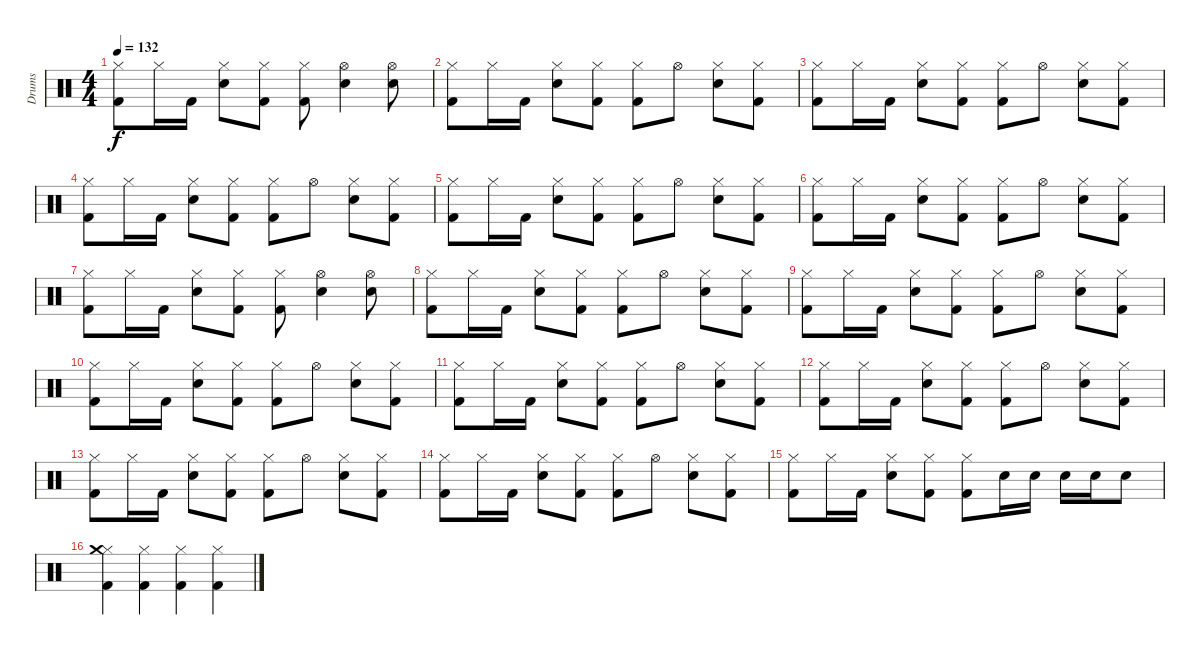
\track ("Drums" "Drums") {instrument percussion}
\staff {score}
\articulation defaults
\ts (4 4)
\tempo 132
\clef neutral
\ks c
("Kick (hit) 2" "Hi-Hat (closed)").8{dy f} "Hi-Hat (closed)".16 "Kick (hit) 2".16 ("Electric Snare (hit)" "Hi-Hat (closed)").8 ("Kick (hit) 2" "Hi-Hat (closed)").8 ("Kick (hit) 2" "Hi-Hat (closed)").8 ("Electric Snare (hit)" "Hi-Hat (open)").4 ("Electric Snare (hit)" "Hi-Hat (open)").8 |
("Kick (hit) 2" "Hi-Hat (closed)").8 "Hi-Hat (closed)".16 "Kick (hit) 2".16 ("Electric Snare (hit)" "Hi-Hat (closed)").8 ("Kick (hit) 2" "Hi-Hat (closed)").8 ("Kick (hit) 2" "Hi-Hat (closed)").8 "Hi-Hat (open)".8 ("Electric Snare (hit)" "Hi-Hat (closed)").8 ("Kick (hit) 2" "Hi-Hat (closed)").8 |
("Kick (hit) 2" "Hi-Hat (closed)").8 "Hi-Hat (closed)".16 "Kick (hit) 2".16 ("Electric Snare (hit)" "Hi-Hat (closed)").8 ("Kick (hit) 2" "Hi-Hat (closed)").8 ("Kick (hit) 2" "Hi-Hat (closed)").8 "Hi-Hat (open)".8 ("Electric Snare (hit)" "Hi-Hat (closed)").8 ("Kick (hit) 2" "Hi-Hat (closed)").8 |
("Kick (hit) 2" "Hi-Hat (closed)").8 "Hi-Hat (closed)".16 "Kick (hit) 2".16 ("Electric Snare (hit)" "Hi-Hat (closed)").8 ("Kick (hit) 2" "Hi-Hat (closed)").8 ("Kick (hit) 2" "Hi-Hat (closed)").8 "Hi-Hat (open)".8 ("Electric Snare (hit)" "Hi-Hat (closed)").8 ("Kick (hit) 2" "Hi-Hat (closed)").8 |
("Kick (hit) 2" "Hi-Hat (closed)").8 "Hi-Hat (closed)".16 "Kick (hit) 2".16 ("Electric Snare (hit)" "Hi-Hat (closed)").8 ("Kick (hit) 2" "Hi-Hat (closed)").8 ("Kick (hit) 2" "Hi-Hat (closed)").8 "Hi-Hat (open)".8 ("Electric Snare (hit)" "Hi-Hat (closed)").8 ("Kick (hit) 2" "Hi-Hat (closed)").8 |
("Kick (hit) 2" "Hi-Hat (closed)").8 "Hi-Hat (closed)".16 "Kick (hit) 2".16 ("Electric Snare (hit)" "Hi-Hat (closed)").8 ("Kick (hit) 2" "Hi-Hat (closed)").8 ("Kick (hit) 2" "Hi-Hat (closed)").8 "Hi-Hat (open)".8 ("Electric Snare (hit)" "Hi-Hat (closed)").8 ("Kick (hit) 2" "Hi-Hat (closed)").8 |
("Kick (hit) 2" "Hi-Hat (closed)").8 "Hi-Hat (closed)".16 "Kick (hit) 2".16 ("Electric Snare (hit)" "Hi-Hat (closed)").8 ("Kick (hit) 2" "Hi-Hat (closed)").8 ("Kick (hit) 2" "Hi-Hat (closed)").8 ("Electric Snare (hit)" "Hi-Hat (open)").4 ("Electric Snare (hit)" "Hi-Hat (open)").8 |
("Kick (hit) 2" "Hi-Hat (closed)").8 "Hi-Hat (closed)".16 "Kick (hit) 2".16 ("Electric Snare (hit)" "Hi-Hat (closed)").8 ("Kick (hit) 2" "Hi-Hat (closed)").8 ("Kick (hit) 2" "Hi-Hat (closed)").8 "Hi-Hat (open)".8 ("Electric Snare (hit)" "Hi-Hat (closed)").8 ("Kick (hit) 2" "Hi-Hat (closed)").8 |
("Kick (hit) 2" "Hi-Hat (closed)").8 "Hi-Hat (closed)".16 "Kick (hit) 2".16 ("Electric Snare (hit)" "Hi-Hat (closed)").8 ("Kick (hit) 2" "Hi-Hat (closed)").8 ("Kick (hit) 2" "Hi-Hat (closed)").8 "Hi-Hat (open)".8 ("Electric Snare (hit)" "Hi-Hat (closed)").8 ("Kick (hit) 2" "Hi-Hat (closed)").8 |
("Kick (hit) 2" "Hi-Hat (closed)").8 "Hi-Hat (closed)".16 "Kick (hit) 2".16 ("Electric Snare (hit)" "Hi-Hat (closed)").8 ("Kick (hit) 2" "Hi-Hat (closed)").8 ("Kick (hit) 2" "Hi-Hat (closed)").8 "Hi-Hat (open)".8 ("Electric Snare (hit)" "Hi-Hat (closed)").8 ("Kick (hit) 2" "Hi-Hat (closed)").8 |
("Kick (hit) 2" "Hi-Hat (closed)").8 "Hi-Hat (closed)".16 "Kick (hit) 2".16 ("Electric Snare (hit)" "Hi-Hat (closed)").8 ("Kick (hit) 2" "Hi-Hat (closed)").8 ("Kick (hit) 2" "Hi-Hat (closed)").8 "Hi-Hat (open)".8 ("Electric Snare (hit)" "Hi-Hat (closed)").8 ("Kick (hit) 2" "Hi-Hat (closed)").8 |
("Kick (hit) 2" "Hi-Hat (closed)").8 "Hi-Hat (closed)".16 "Kick (hit) 2".16 ("Electric Snare (hit)" "Hi-Hat (closed)").8 ("Kick (hit) 2" "Hi-Hat (closed)").8 ("Kick (hit) 2" "Hi-Hat (closed)").8 "Hi-Hat (open)".8 ("Electric Snare (hit)" "Hi-Hat (closed)").8 ("Kick (hit) 2" "Hi-Hat (closed)").8 |
("Kick (hit) 2" "Hi-Hat (closed)").8 "Hi-Hat (closed)".16 "Kick (hit) 2".16 ("Electric Snare (hit)" "Hi-Hat (closed)").8 ("Kick (hit) 2" "Hi-Hat (closed)").8 ("Kick (hit) 2" "Hi-Hat (closed)").8 "Hi-Hat (open)".8 ("Electric Snare (hit)" "Hi-Hat (closed)").8 ("Kick (hit) 2" "Hi-Hat (closed)").8 |
("Kick (hit) 2" "Hi-Hat (closed)").8 "Hi-Hat (closed)".16 "Kick (hit) 2".16 ("Electric Snare (hit)" "Hi-Hat (closed)").8 ("Kick (hit) 2" "Hi-Hat (closed)").8 ("Kick (hit) 2" "Hi-Hat (closed)").8 "Hi-Hat (open)".8 ("Electric Snare (hit)" "Hi-Hat (closed)").8 ("Kick (hit) 2" "Hi-Hat (closed)").8 |
("Kick (hit) 2" "Hi-Hat (closed)").8 "Hi-Hat (closed)".16 "Kick (hit) 2".16 ("Electric Snare (hit)" "Hi-Hat (closed)").8 ("Kick (hit) 2" "Hi-Hat (closed)").8 ("Kick (hit) 2" "Hi-Hat (closed)").8 "Electric Snare (hit)".16 "Electric Snare (hit)".16 "Electric Snare (hit)".16 "Electric Snare (hit)".16 "Electric Snare (hit)".8 |
("Kick (hit) 2" "Hi-Hat (closed)" "Crash medium (hit)").4 ("Kick (hit) 2" "Hi-Hat (closed)").4 ("Kick (hit) 2" "Hi-Hat (closed)").4 ("Kick (hit) 2" "Hi-Hat (closed)").4
